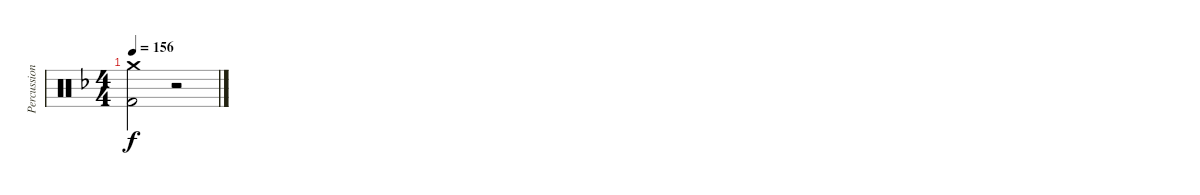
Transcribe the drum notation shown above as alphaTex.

\track ("Percussion" "Percussion") {instrument percussion}
\staff {score}
\articulation defaults
\ts (4 4)
\tempo 156
\clef neutral
\ks f
("Crash medium (hit)" "Kick (hit) 2").2{dy f} r.2
